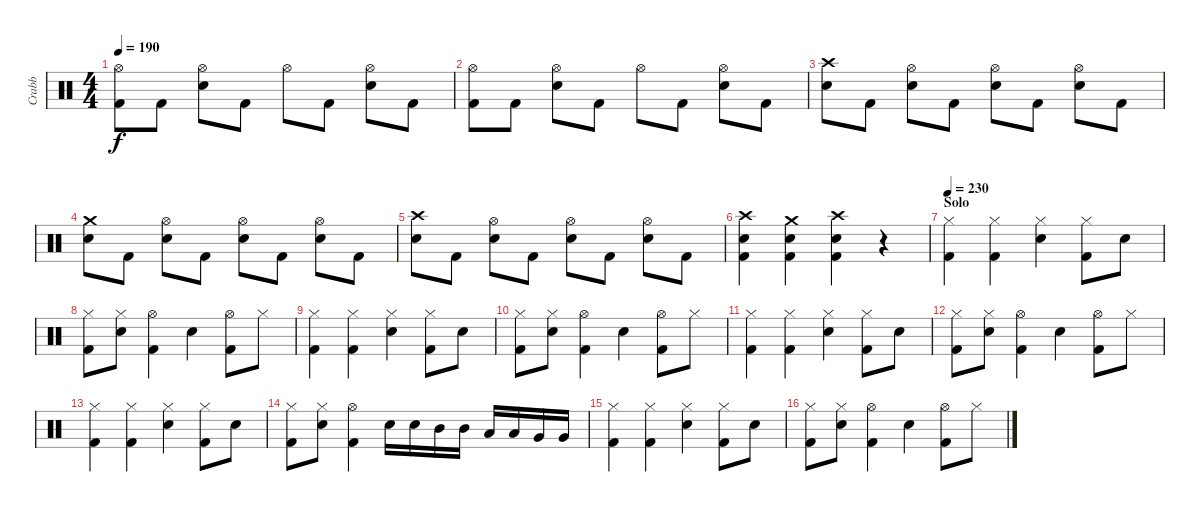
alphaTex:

\track ("Crabb" "Crabb") {instrument percussion}
\staff {score}
\articulation defaults
\ts (4 4)
\tempo 190
\clef neutral
\ks c
("Hi-Hat (open)" "Kick (hit) 2").8{dy f} "Kick (hit) 2".8 ("Hi-Hat (open)" "Electric Snare (hit)").8 "Kick (hit) 2".8 "Hi-Hat (open)".8 "Kick (hit) 2".8 ("Hi-Hat (open)" "Electric Snare (hit)").8 "Kick (hit) 2".8 |
("Hi-Hat (open)" "Kick (hit) 2").8 "Kick (hit) 2".8 ("Hi-Hat (open)" "Electric Snare (hit)").8 "Kick (hit) 2".8 "Hi-Hat (open)".8 "Kick (hit) 2".8 ("Hi-Hat (open)" "Electric Snare (hit)").8 "Kick (hit) 2".8 |
("Crash high (hit)" "Electric Snare (hit)").8 "Kick (hit) 2".8 ("Hi-Hat (open)" "Electric Snare (hit)").8 "Kick (hit) 2".8 ("Hi-Hat (open)" "Electric Snare (hit)").8 "Kick (hit) 2".8 ("Hi-Hat (open)" "Electric Snare (hit)").8 "Kick (hit) 2".8 |
("Crash medium (hit)" "Electric Snare (hit)").8 "Kick (hit) 2".8 ("Hi-Hat (open)" "Electric Snare (hit)").8 "Kick (hit) 2".8 ("Hi-Hat (open)" "Electric Snare (hit)").8 "Kick (hit) 2".8 ("Hi-Hat (open)" "Electric Snare (hit)").8 "Kick (hit) 2".8 |
("Crash high (hit)" "Electric Snare (hit)").8 "Kick (hit) 2".8 ("Hi-Hat (open)" "Electric Snare (hit)").8 "Kick (hit) 2".8 ("Hi-Hat (open)" "Electric Snare (hit)").8 "Kick (hit) 2".8 ("Hi-Hat (open)" "Electric Snare (hit)").8 "Kick (hit) 2".8 |
("Crash high (hit)" "Electric Snare (hit)" "Kick (hit) 2").4 ("Crash medium (hit)" "Electric Snare (hit)" "Kick (hit) 2").4 ("Crash high (hit)" "Electric Snare (hit)" "Kick (hit) 2").4 r.4 |
\section ("" "Solo")
\tempo 230
("Hi-Hat (closed)" "Kick (hit) 2").4 ("Hi-Hat (closed)" "Kick (hit) 2").4 ("Hi-Hat (closed)" "Electric Snare (hit)").4 ("Hi-Hat (closed)" "Kick (hit) 2").8 "Electric Snare (hit)".8 |
("Hi-Hat (closed)" "Kick (hit) 2").8 ("Hi-Hat (closed)" "Electric Snare (hit)").8 ("Hi-Hat (open)" "Kick (hit) 2").4 "Electric Snare (hit)".4 ("Hi-Hat (open)" "Kick (hit) 2").8 "Hi-Hat (closed)".8 |
("Hi-Hat (closed)" "Kick (hit) 2").4 ("Hi-Hat (closed)" "Kick (hit) 2").4 ("Hi-Hat (closed)" "Electric Snare (hit)").4 ("Hi-Hat (closed)" "Kick (hit) 2").8 "Electric Snare (hit)".8 |
("Hi-Hat (closed)" "Kick (hit) 2").8 ("Hi-Hat (closed)" "Electric Snare (hit)").8 ("Hi-Hat (open)" "Kick (hit) 2").4 "Electric Snare (hit)".4 ("Hi-Hat (open)" "Kick (hit) 2").8 "Hi-Hat (closed)".8 |
("Hi-Hat (closed)" "Kick (hit) 2").4 ("Hi-Hat (closed)" "Kick (hit) 2").4 ("Hi-Hat (closed)" "Electric Snare (hit)").4 ("Hi-Hat (closed)" "Kick (hit) 2").8 "Electric Snare (hit)".8 |
("Hi-Hat (closed)" "Kick (hit) 2").8 ("Hi-Hat (closed)" "Electric Snare (hit)").8 ("Hi-Hat (open)" "Kick (hit) 2").4 "Electric Snare (hit)".4 ("Hi-Hat (open)" "Kick (hit) 2").8 "Hi-Hat (closed)".8 |
("Hi-Hat (closed)" "Kick (hit) 2").4 ("Hi-Hat (closed)" "Kick (hit) 2").4 ("Hi-Hat (closed)" "Electric Snare (hit)").4 ("Hi-Hat (closed)" "Kick (hit) 2").8 "Electric Snare (hit)".8 |
("Hi-Hat (closed)" "Kick (hit) 2").8 ("Hi-Hat (closed)" "Electric Snare (hit)").8 ("Hi-Hat (open)" "Kick (hit) 2").4 "Electric Snare (hit)".16 "Electric Snare (hit)".16 "Mid Tom (hit)".16 "Mid Tom (hit)".16 "Low Tom (hit)".16 "Low Tom (hit)".16 "Very Low Tom (hit)".16 "Very Low Tom (hit)".16 |
("Hi-Hat (closed)" "Kick (hit) 2").4 ("Hi-Hat (closed)" "Kick (hit) 2").4 ("Hi-Hat (closed)" "Electric Snare (hit)").4 ("Hi-Hat (closed)" "Kick (hit) 2").8 "Electric Snare (hit)".8 |
("Hi-Hat (closed)" "Kick (hit) 2").8 ("Hi-Hat (closed)" "Electric Snare (hit)").8 ("Hi-Hat (open)" "Kick (hit) 2").4 "Electric Snare (hit)".4 ("Hi-Hat (open)" "Kick (hit) 2").8 "Hi-Hat (closed)".8
